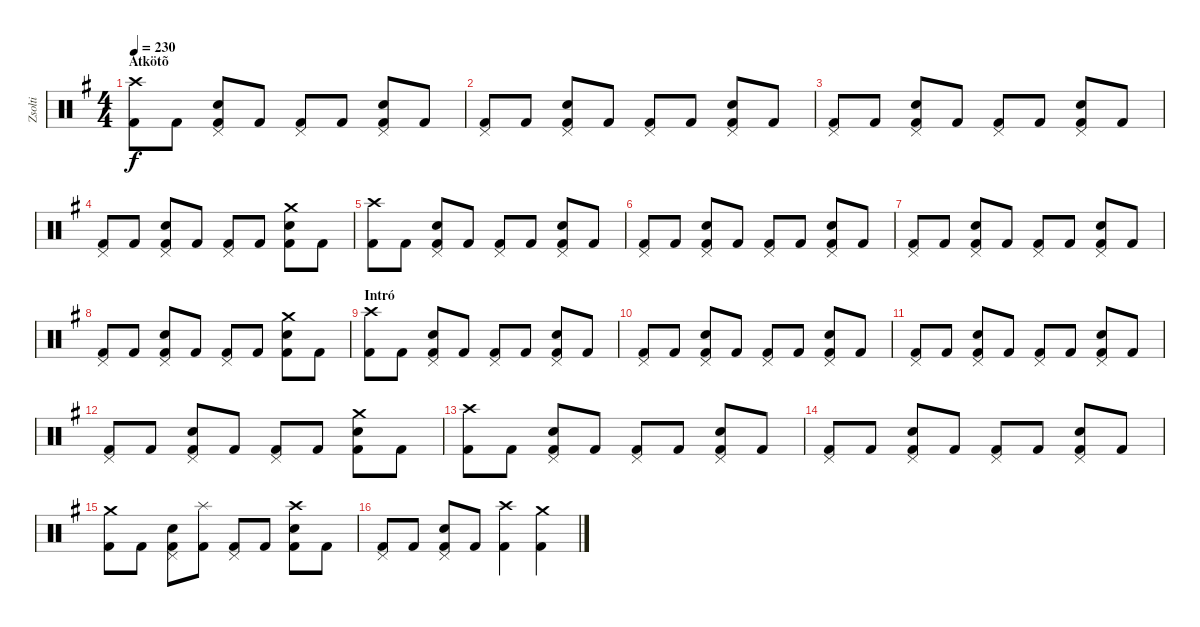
\track ("Zsolti" "Zsolti") {instrument percussion}
\staff {score}
\articulation defaults
\ts (4 4)
\section ("" "Átkötõ")
\tempo 230
\clef neutral
\ks eminor
("Crash high (hit)" "Kick (hit) 2").8{dy f} "Kick (hit) 2".8 ("Pedal Hi-Hat (hit)" "Snare (hit) 2" "Kick (hit) 2").8 "Kick (hit) 2".8 ("Pedal Hi-Hat (hit)" "Kick (hit) 2").8 "Kick (hit) 2".8 ("Pedal Hi-Hat (hit)" "Snare (hit) 2" "Kick (hit) 2").8 "Kick (hit) 2".8 |
("Pedal Hi-Hat (hit)" "Kick (hit) 2").8 "Kick (hit) 2".8 ("Pedal Hi-Hat (hit)" "Snare (hit) 2" "Kick (hit) 2").8 "Kick (hit) 2".8 ("Pedal Hi-Hat (hit)" "Kick (hit) 2").8 "Kick (hit) 2".8 ("Pedal Hi-Hat (hit)" "Snare (hit) 2" "Kick (hit) 2").8 "Kick (hit) 2".8 |
("Pedal Hi-Hat (hit)" "Kick (hit) 2").8 "Kick (hit) 2".8 ("Pedal Hi-Hat (hit)" "Snare (hit) 2" "Kick (hit) 2").8 "Kick (hit) 2".8 ("Pedal Hi-Hat (hit)" "Kick (hit) 2").8 "Kick (hit) 2".8 ("Pedal Hi-Hat (hit)" "Snare (hit) 2" "Kick (hit) 2").8 "Kick (hit) 2".8 |
("Pedal Hi-Hat (hit)" "Kick (hit) 2").8 "Kick (hit) 2".8 ("Pedal Hi-Hat (hit)" "Snare (hit) 2" "Kick (hit) 2").8 "Kick (hit) 2".8 ("Pedal Hi-Hat (hit)" "Kick (hit) 2").8 "Kick (hit) 2".8 ("Crash medium (hit)" "Snare (hit) 2" "Kick (hit) 2").8 "Kick (hit) 2".8 |
("Crash high (hit)" "Kick (hit) 2").8 "Kick (hit) 2".8 ("Pedal Hi-Hat (hit)" "Snare (hit) 2" "Kick (hit) 2").8 "Kick (hit) 2".8 ("Pedal Hi-Hat (hit)" "Kick (hit) 2").8 "Kick (hit) 2".8 ("Pedal Hi-Hat (hit)" "Snare (hit) 2" "Kick (hit) 2").8 "Kick (hit) 2".8 |
("Pedal Hi-Hat (hit)" "Kick (hit) 2").8 "Kick (hit) 2".8 ("Pedal Hi-Hat (hit)" "Snare (hit) 2" "Kick (hit) 2").8 "Kick (hit) 2".8 ("Pedal Hi-Hat (hit)" "Kick (hit) 2").8 "Kick (hit) 2".8 ("Pedal Hi-Hat (hit)" "Snare (hit) 2" "Kick (hit) 2").8 "Kick (hit) 2".8 |
("Pedal Hi-Hat (hit)" "Kick (hit) 2").8 "Kick (hit) 2".8 ("Pedal Hi-Hat (hit)" "Snare (hit) 2" "Kick (hit) 2").8 "Kick (hit) 2".8 ("Pedal Hi-Hat (hit)" "Kick (hit) 2").8 "Kick (hit) 2".8 ("Pedal Hi-Hat (hit)" "Snare (hit) 2" "Kick (hit) 2").8 "Kick (hit) 2".8 |
("Pedal Hi-Hat (hit)" "Kick (hit) 2").8 "Kick (hit) 2".8 ("Pedal Hi-Hat (hit)" "Snare (hit) 2" "Kick (hit) 2").8 "Kick (hit) 2".8 ("Pedal Hi-Hat (hit)" "Kick (hit) 2").8 "Kick (hit) 2".8 ("Crash medium (hit)" "Snare (hit) 2" "Kick (hit) 2").8 "Kick (hit) 2".8 |
\section ("" "Intró")
("Crash high (hit)" "Kick (hit) 2").8 "Kick (hit) 2".8 ("Pedal Hi-Hat (hit)" "Snare (hit) 2" "Kick (hit) 2").8 "Kick (hit) 2".8 ("Pedal Hi-Hat (hit)" "Kick (hit) 2").8 "Kick (hit) 2".8 ("Pedal Hi-Hat (hit)" "Snare (hit) 2" "Kick (hit) 2").8 "Kick (hit) 2".8 |
("Pedal Hi-Hat (hit)" "Kick (hit) 2").8 "Kick (hit) 2".8 ("Pedal Hi-Hat (hit)" "Snare (hit) 2" "Kick (hit) 2").8 "Kick (hit) 2".8 ("Pedal Hi-Hat (hit)" "Kick (hit) 2").8 "Kick (hit) 2".8 ("Pedal Hi-Hat (hit)" "Snare (hit) 2" "Kick (hit) 2").8 "Kick (hit) 2".8 |
("Pedal Hi-Hat (hit)" "Kick (hit) 2").8 "Kick (hit) 2".8 ("Pedal Hi-Hat (hit)" "Snare (hit) 2" "Kick (hit) 2").8 "Kick (hit) 2".8 ("Pedal Hi-Hat (hit)" "Kick (hit) 2").8 "Kick (hit) 2".8 ("Pedal Hi-Hat (hit)" "Snare (hit) 2" "Kick (hit) 2").8 "Kick (hit) 2".8 |
("Pedal Hi-Hat (hit)" "Kick (hit) 2").8 "Kick (hit) 2".8 ("Pedal Hi-Hat (hit)" "Snare (hit) 2" "Kick (hit) 2").8 "Kick (hit) 2".8 ("Pedal Hi-Hat (hit)" "Kick (hit) 2").8 "Kick (hit) 2".8 ("Crash medium (hit)" "Snare (hit) 2" "Kick (hit) 2").8 "Kick (hit) 2".8 |
("Crash high (hit)" "Kick (hit) 2").8 "Kick (hit) 2".8 ("Pedal Hi-Hat (hit)" "Snare (hit) 2" "Kick (hit) 2").8 "Kick (hit) 2".8 ("Pedal Hi-Hat (hit)" "Kick (hit) 2").8 "Kick (hit) 2".8 ("Pedal Hi-Hat (hit)" "Snare (hit) 2" "Kick (hit) 2").8 "Kick (hit) 2".8 |
("Pedal Hi-Hat (hit)" "Kick (hit) 2").8 "Kick (hit) 2".8 ("Pedal Hi-Hat (hit)" "Snare (hit) 2" "Kick (hit) 2").8 "Kick (hit) 2".8 ("Pedal Hi-Hat (hit)" "Kick (hit) 2").8 "Kick (hit) 2".8 ("Pedal Hi-Hat (hit)" "Snare (hit) 2" "Kick (hit) 2").8 "Kick (hit) 2".8 |
("Crash medium (hit)" "Kick (hit) 2").8 "Kick (hit) 2".8 ("Pedal Hi-Hat (hit)" "Snare (hit) 2" "Kick (hit) 2").8 ("Splash (hit)" "Kick (hit) 2").8 ("Pedal Hi-Hat (hit)" "Kick (hit) 2").8 "Kick (hit) 2".8 ("Crash high (hit)" "Snare (hit) 2" "Kick (hit) 2").8 "Kick (hit) 2".8 |
("Pedal Hi-Hat (hit)" "Kick (hit) 2").8 "Kick (hit) 2".8 ("Pedal Hi-Hat (hit)" "Snare (hit) 2" "Kick (hit) 2").8 "Kick (hit) 2".8 ("Crash high (hit)" "Kick (hit) 2").4 ("Crash medium (hit)" "Kick (hit) 2").4
